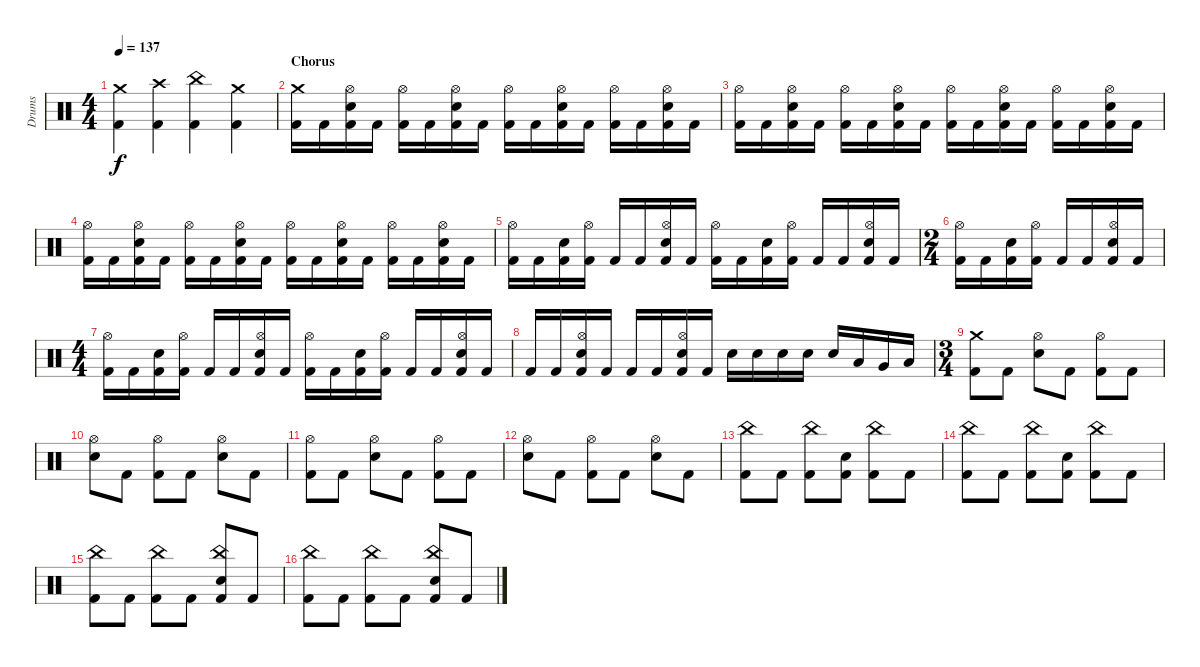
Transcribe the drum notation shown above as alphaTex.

\track ("Drums" "Drums") {instrument percussion}
\staff {score}
\articulation defaults
\ts (4 4)
\tempo 137
\clef neutral
\ks c
("Crash medium (hit)" "Kick (hit) 2").4{dy f} ("Crash high (hit)" "Kick (hit) 2").4 ("China (hit)" "Kick (hit) 2").4 ("Crash medium (hit)" "Kick (hit) 2").4 |
\section ("" "Chorus")
("Crash medium (hit)" "Kick (hit) 2").16 "Kick (hit) 2".16 ("Hi-Hat (open)" "Electric Snare (hit)" "Kick (hit) 2").16 "Kick (hit) 2".16 ("Hi-Hat (open)" "Kick (hit) 2").16 "Kick (hit) 2".16 ("Hi-Hat (open)" "Electric Snare (hit)" "Kick (hit) 2").16 "Kick (hit) 2".16 ("Hi-Hat (open)" "Kick (hit) 2").16 "Kick (hit) 2".16 ("Hi-Hat (open)" "Electric Snare (hit)" "Kick (hit) 2").16 "Kick (hit) 2".16 ("Hi-Hat (open)" "Kick (hit) 2").16 "Kick (hit) 2".16 ("Hi-Hat (open)" "Electric Snare (hit)" "Kick (hit) 2").16 "Kick (hit) 2".16 |
("Hi-Hat (open)" "Kick (hit) 2").16 "Kick (hit) 2".16 ("Hi-Hat (open)" "Electric Snare (hit)" "Kick (hit) 2").16 "Kick (hit) 2".16 ("Hi-Hat (open)" "Kick (hit) 2").16 "Kick (hit) 2".16 ("Hi-Hat (open)" "Electric Snare (hit)" "Kick (hit) 2").16 "Kick (hit) 2".16 ("Hi-Hat (open)" "Kick (hit) 2").16 "Kick (hit) 2".16 ("Hi-Hat (open)" "Electric Snare (hit)" "Kick (hit) 2").16 "Kick (hit) 2".16 ("Hi-Hat (open)" "Kick (hit) 2").16 "Kick (hit) 2".16 ("Hi-Hat (open)" "Electric Snare (hit)" "Kick (hit) 2").16 "Kick (hit) 2".16 |
("Hi-Hat (open)" "Kick (hit) 2").16 "Kick (hit) 2".16 ("Hi-Hat (open)" "Electric Snare (hit)" "Kick (hit) 2").16 "Kick (hit) 2".16 ("Hi-Hat (open)" "Kick (hit) 2").16 "Kick (hit) 2".16 ("Hi-Hat (open)" "Electric Snare (hit)" "Kick (hit) 2").16 "Kick (hit) 2".16 ("Hi-Hat (open)" "Kick (hit) 2").16 "Kick (hit) 2".16 ("Hi-Hat (open)" "Electric Snare (hit)" "Kick (hit) 2").16 "Kick (hit) 2".16 ("Hi-Hat (open)" "Kick (hit) 2").16 "Kick (hit) 2".16 ("Hi-Hat (open)" "Electric Snare (hit)" "Kick (hit) 2").16 "Kick (hit) 2".16 |
("Hi-Hat (open)" "Kick (hit) 2").16 "Kick (hit) 2".16 ("Electric Snare (hit)" "Kick (hit) 2").16 ("Hi-Hat (open)" "Kick (hit) 2").16 "Kick (hit) 2".16 "Kick (hit) 2".16 ("Hi-Hat (open)" "Electric Snare (hit)" "Kick (hit) 2").16 "Kick (hit) 2".16 ("Hi-Hat (open)" "Kick (hit) 2").16 "Kick (hit) 2".16 ("Electric Snare (hit)" "Kick (hit) 2").16 ("Hi-Hat (open)" "Kick (hit) 2").16 "Kick (hit) 2".16 "Kick (hit) 2".16 ("Hi-Hat (open)" "Electric Snare (hit)" "Kick (hit) 2").16 "Kick (hit) 2".16 |
\ts (2 4)
("Hi-Hat (open)" "Kick (hit) 2").16 "Kick (hit) 2".16 ("Electric Snare (hit)" "Kick (hit) 2").16 ("Hi-Hat (open)" "Kick (hit) 2").16 "Kick (hit) 2".16 "Kick (hit) 2".16 ("Hi-Hat (open)" "Electric Snare (hit)" "Kick (hit) 2").16 "Kick (hit) 2".16 |
\ts (4 4)
("Hi-Hat (open)" "Kick (hit) 2").16 "Kick (hit) 2".16 ("Electric Snare (hit)" "Kick (hit) 2").16 ("Hi-Hat (open)" "Kick (hit) 2").16 "Kick (hit) 2".16 "Kick (hit) 2".16 ("Hi-Hat (open)" "Electric Snare (hit)" "Kick (hit) 2").16 "Kick (hit) 2".16 ("Hi-Hat (open)" "Kick (hit) 2").16 "Kick (hit) 2".16 ("Electric Snare (hit)" "Kick (hit) 2").16 ("Hi-Hat (open)" "Kick (hit) 2").16 "Kick (hit) 2".16 "Kick (hit) 2".16 ("Hi-Hat (open)" "Electric Snare (hit)" "Kick (hit) 2").16 "Kick (hit) 2".16 |
"Kick (hit) 2".16 "Kick (hit) 2".16 ("Hi-Hat (open)" "Electric Snare (hit)" "Kick (hit) 2").16 "Kick (hit) 2".16 "Kick (hit) 2".16 "Kick (hit) 2".16 ("Hi-Hat (open)" "Electric Snare (hit)" "Kick (hit) 2").16 "Kick (hit) 2".16 "Electric Snare (hit)".16 "Electric Snare (hit)".16 "Electric Snare (hit)".16 "Electric Snare (hit)".16 "Electric Snare (hit)".16 "Low Tom (hit)".16 "Very Low Tom (hit)".16 "Low Floor Tom (hit)".16 |
\ts (3 4)
("Kick (hit) 2" "Crash medium (hit)").8 "Kick (hit) 2".8 ("Electric Snare (hit)" "Hi-Hat (open)").8 "Kick (hit) 2".8 ("Kick (hit) 2" "Hi-Hat (open)").8 "Kick (hit) 2".8 |
("Electric Snare (hit)" "Hi-Hat (open)").8 "Kick (hit) 2".8 ("Hi-Hat (open)" "Kick (hit) 2").8 "Kick (hit) 2".8 ("Hi-Hat (open)" "Electric Snare (hit)").8 "Kick (hit) 2".8 |
("Hi-Hat (open)" "Kick (hit) 2").8 "Kick (hit) 2".8 ("Hi-Hat (open)" "Electric Snare (hit)").8 "Kick (hit) 2".8 ("Hi-Hat (open)" "Kick (hit) 2").8 "Kick (hit) 2".8 |
("Hi-Hat (open)" "Electric Snare (hit)").8 "Kick (hit) 2".8 ("Hi-Hat (open)" "Kick (hit) 2").8 "Kick (hit) 2".8 ("Hi-Hat (open)" "Electric Snare (hit)").8 "Kick (hit) 2".8 |
("China (hit)" "Kick (hit) 2").8 "Kick (hit) 2".8 ("China (hit)" "Kick (hit) 2").8 ("Electric Snare (hit)" "Kick (hit) 2").8 ("China (hit)" "Kick (hit) 2").8 "Kick (hit) 2".8 |
("China (hit)" "Kick (hit) 2").8 "Kick (hit) 2".8 ("Kick (hit) 2" "China (hit)").8 ("Electric Snare (hit)" "Kick (hit) 2").8 ("Kick (hit) 2" "China (hit)").8 "Kick (hit) 2".8 |
("Kick (hit) 2" "China (hit)").8 "Kick (hit) 2".8 ("Kick (hit) 2" "China (hit)").8 "Kick (hit) 2".8 ("China (hit)" "Kick (hit) 2" "Electric Snare (hit)").8 "Kick (hit) 2".8 |
("China (hit)" "Kick (hit) 2").8 "Kick (hit) 2".8 ("China (hit)" "Kick (hit) 2").8 "Kick (hit) 2".8 ("Electric Snare (hit)" "China (hit)" "Kick (hit) 2").8 "Kick (hit) 2".8
